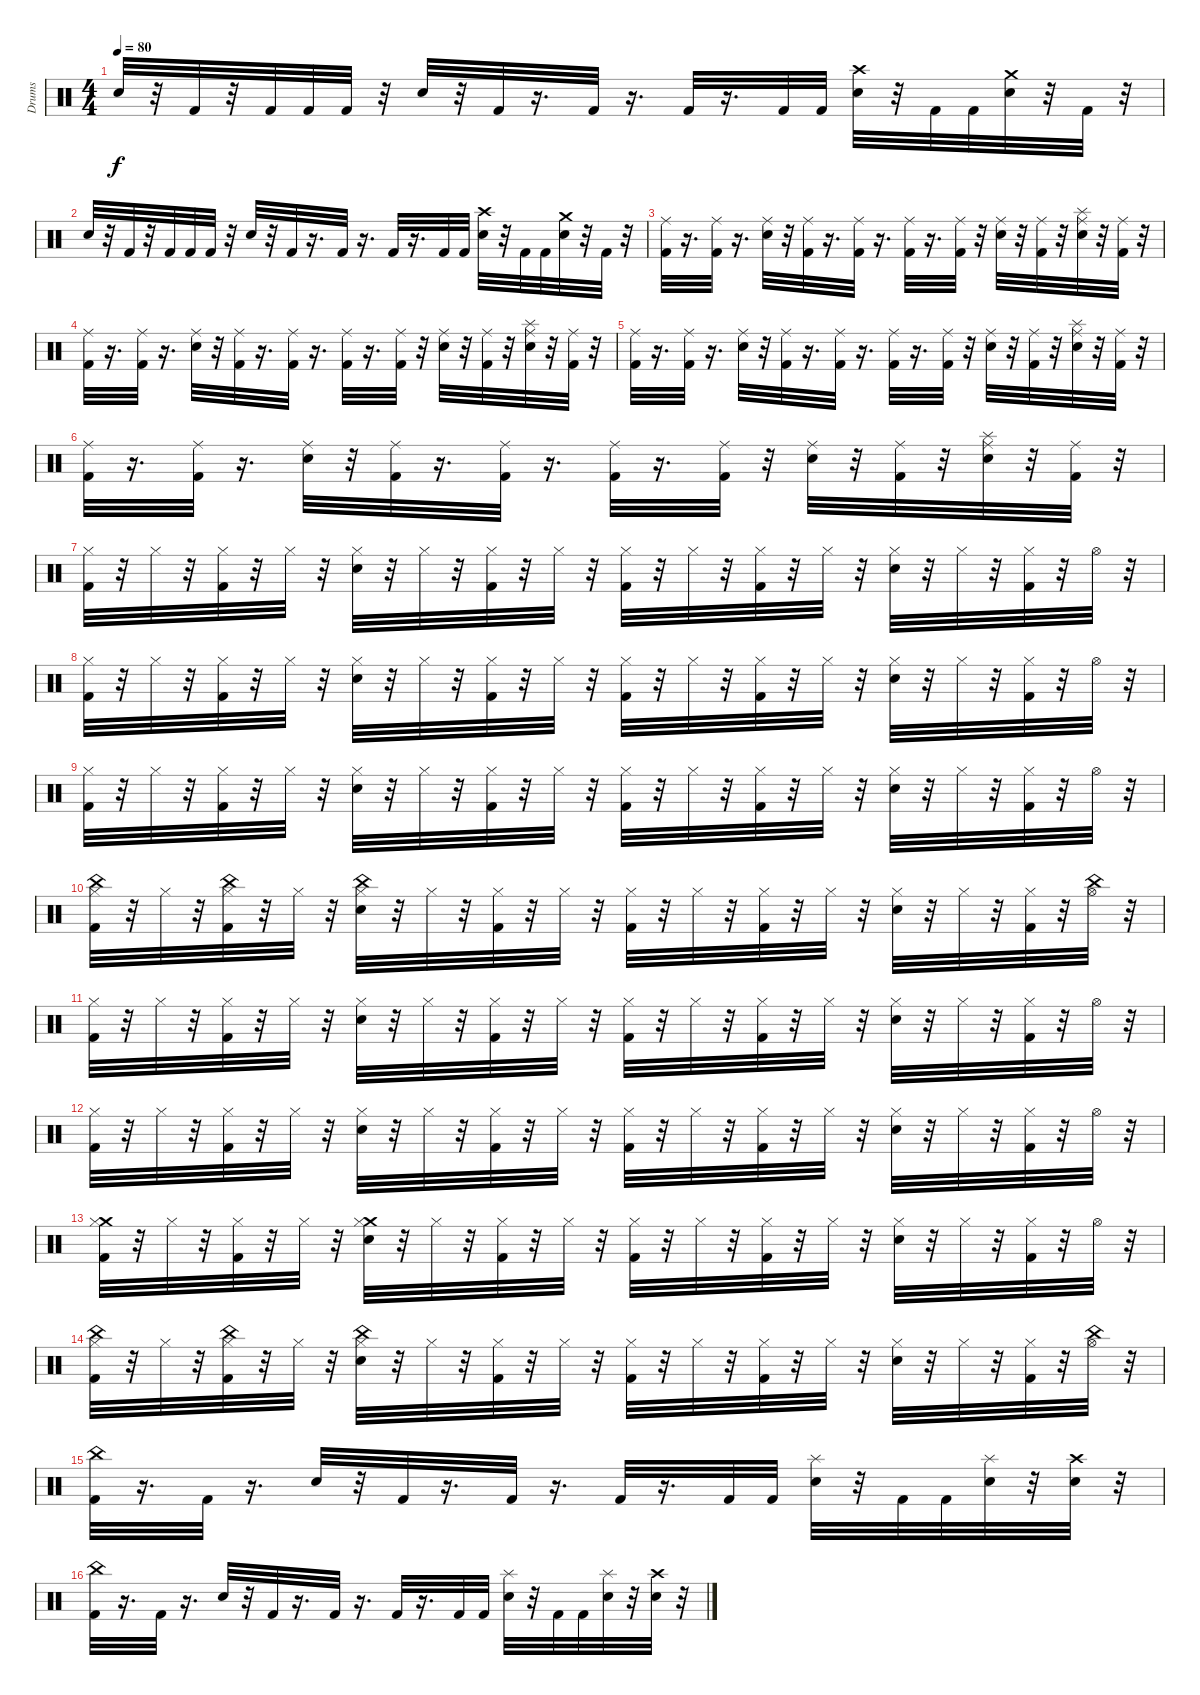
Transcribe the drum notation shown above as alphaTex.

\track ("Drums" "Drums") {instrument percussion}
\staff {score}
\articulation defaults
\ts (4 4)
\tempo 80
\clef neutral
\ks c "Electric Snare (hit)".32{dy f}
r.32 "Kick (hit) 2".32 r.32 "Kick (hit) 2".32 "Kick (hit) 2".32 "Kick (hit) 2".32 r.32 "Electric Snare (hit)".32 r.32 "Kick (hit) 2".32 r.16{d} "Kick (hit) 2".32 r.16{d} "Kick (hit) 2".32 r.16{d} "Kick (hit) 2".32 "Kick (hit) 2".32 ("Crash high (hit)" "Electric Snare (hit)").32 r.32 "Kick (hit) 2".32 "Kick (hit) 2".32 ("Electric Snare (hit)" "Crash medium (hit)").32 r.32 "Kick (hit) 2".32 r.32 |
"Electric Snare (hit)".32 r.32 "Kick (hit) 2".32 r.32 "Kick (hit) 2".32 "Kick (hit) 2".32 "Kick (hit) 2".32 r.32 "Electric Snare (hit)".32 r.32 "Kick (hit) 2".32 r.16{d} "Kick (hit) 2".32 r.16{d} "Kick (hit) 2".32 r.16{d} "Kick (hit) 2".32 "Kick (hit) 2".32 ("Crash high (hit)" "Electric Snare (hit)").32 r.32 "Kick (hit) 2".32 "Kick (hit) 2".32 ("Electric Snare (hit)" "Crash medium (hit)").32 r.32 "Kick (hit) 2".32 r.32 |
("Kick (hit) 2" "Ride (middle)").32 r.16{d} ("Ride (middle)" "Kick (hit) 2").32 r.16{d} ("Ride (middle)" "Electric Snare (hit)").32 r.32 ("Kick (hit) 2" "Ride (middle)").32 r.16{d} ("Kick (hit) 2" "Ride (middle)").32 r.16{d} ("Kick (hit) 2" "Ride (middle)").32 r.16{d} ("Kick (hit) 2" "Ride (middle)").32 r.32 ("Electric Snare (hit)" "Ride (middle)").32 r.32 ("Kick (hit) 2" "Ride (middle)").32 r.32 ("Splash (hit)" "Electric Snare (hit)" "Ride (middle)").32 r.32 ("Ride (middle)" "Kick (hit) 2").32 r.32 |
("Kick (hit) 2" "Ride (middle)").32 r.16{d} ("Ride (middle)" "Kick (hit) 2").32 r.16{d} ("Ride (middle)" "Electric Snare (hit)").32 r.32 ("Kick (hit) 2" "Ride (middle)").32 r.16{d} ("Kick (hit) 2" "Ride (middle)").32 r.16{d} ("Kick (hit) 2" "Ride (middle)").32 r.16{d} ("Kick (hit) 2" "Ride (middle)").32 r.32 ("Electric Snare (hit)" "Ride (middle)").32 r.32 ("Kick (hit) 2" "Ride (middle)").32 r.32 ("Splash (hit)" "Electric Snare (hit)" "Ride (middle)").32 r.32 ("Ride (middle)" "Kick (hit) 2").32 r.32 |
("Kick (hit) 2" "Ride (middle)").32 r.16{d} ("Ride (middle)" "Kick (hit) 2").32 r.16{d} ("Ride (middle)" "Electric Snare (hit)").32 r.32 ("Kick (hit) 2" "Ride (middle)").32 r.16{d} ("Kick (hit) 2" "Ride (middle)").32 r.16{d} ("Kick (hit) 2" "Ride (middle)").32 r.16{d} ("Kick (hit) 2" "Ride (middle)").32 r.32 ("Electric Snare (hit)" "Ride (middle)").32 r.32 ("Kick (hit) 2" "Ride (middle)").32 r.32 ("Splash (hit)" "Electric Snare (hit)" "Ride (middle)").32 r.32 ("Ride (middle)" "Kick (hit) 2").32 r.32 |
("Kick (hit) 2" "Ride (middle)").32 r.16{d} ("Ride (middle)" "Kick (hit) 2").32 r.16{d} ("Ride (middle)" "Electric Snare (hit)").32 r.32 ("Kick (hit) 2" "Ride (middle)").32 r.16{d} ("Kick (hit) 2" "Ride (middle)").32 r.16{d} ("Kick (hit) 2" "Ride (middle)").32 r.16{d} ("Kick (hit) 2" "Ride (middle)").32 r.32 ("Electric Snare (hit)" "Ride (middle)").32 r.32 ("Kick (hit) 2" "Ride (middle)").32 r.32 ("Splash (hit)" "Electric Snare (hit)" "Ride (middle)").32 r.32 ("Ride (middle)" "Kick (hit) 2").32 r.32 |
("Hi-Hat (closed)" "Kick (hit) 2").32 r.32 "Hi-Hat (closed)".32 r.32 ("Hi-Hat (closed)" "Kick (hit) 2").32 r.32 "Hi-Hat (closed)".32 r.32 ("Electric Snare (hit)" "Hi-Hat (closed)").32 r.32 "Hi-Hat (closed)".32 r.32 ("Kick (hit) 2" "Hi-Hat (closed)").32 r.32 "Hi-Hat (closed)".32 r.32 ("Kick (hit) 2" "Hi-Hat (closed)").32 r.32 "Hi-Hat (closed)".32 r.32 ("Kick (hit) 2" "Hi-Hat (closed)").32 r.32 "Hi-Hat (closed)".32 r.32 ("Electric Snare (hit)" "Hi-Hat (closed)").32 r.32 "Hi-Hat (closed)".32 r.32 ("Kick (hit) 2" "Hi-Hat (closed)").32 r.32 "Hi-Hat (open)".32 r.32 |
("Hi-Hat (closed)" "Kick (hit) 2").32 r.32 "Hi-Hat (closed)".32 r.32 ("Hi-Hat (closed)" "Kick (hit) 2").32 r.32 "Hi-Hat (closed)".32 r.32 ("Electric Snare (hit)" "Hi-Hat (closed)").32 r.32 "Hi-Hat (closed)".32 r.32 ("Kick (hit) 2" "Hi-Hat (closed)").32 r.32 "Hi-Hat (closed)".32 r.32 ("Kick (hit) 2" "Hi-Hat (closed)").32 r.32 "Hi-Hat (closed)".32 r.32 ("Kick (hit) 2" "Hi-Hat (closed)").32 r.32 "Hi-Hat (closed)".32 r.32 ("Electric Snare (hit)" "Hi-Hat (closed)").32 r.32 "Hi-Hat (closed)".32 r.32 ("Kick (hit) 2" "Hi-Hat (closed)").32 r.32 "Hi-Hat (open)".32 r.32 |
("Hi-Hat (closed)" "Kick (hit) 2").32 r.32 "Hi-Hat (closed)".32 r.32 ("Hi-Hat (closed)" "Kick (hit) 2").32 r.32 "Hi-Hat (closed)".32 r.32 ("Electric Snare (hit)" "Hi-Hat (closed)").32 r.32 "Hi-Hat (closed)".32 r.32 ("Kick (hit) 2" "Hi-Hat (closed)").32 r.32 "Hi-Hat (closed)".32 r.32 ("Kick (hit) 2" "Hi-Hat (closed)").32 r.32 "Hi-Hat (closed)".32 r.32 ("Kick (hit) 2" "Hi-Hat (closed)").32 r.32 "Hi-Hat (closed)".32 r.32 ("Electric Snare (hit)" "Hi-Hat (closed)").32 r.32 "Hi-Hat (closed)".32 r.32 ("Kick (hit) 2" "Hi-Hat (closed)").32 r.32 "Hi-Hat (open)".32 r.32 |
("China (hit)" "Hi-Hat (closed)" "Kick (hit) 2").32 r.32 "Hi-Hat (closed)".32 r.32 ("China (hit)" "Hi-Hat (closed)" "Kick (hit) 2").32 r.32 "Hi-Hat (closed)".32 r.32 ("Electric Snare (hit)" "Hi-Hat (closed)" "China (hit)").32 r.32 "Hi-Hat (closed)".32 r.32 ("Kick (hit) 2" "Hi-Hat (closed)").32 r.32 "Hi-Hat (closed)".32 r.32 ("Kick (hit) 2" "Hi-Hat (closed)").32 r.32 "Hi-Hat (closed)".32 r.32 ("Kick (hit) 2" "Hi-Hat (closed)").32 r.32 "Hi-Hat (closed)".32 r.32 ("Electric Snare (hit)" "Hi-Hat (closed)").32 r.32 "Hi-Hat (closed)".32 r.32 ("Kick (hit) 2" "Hi-Hat (closed)").32 r.32 ("China (hit)" "Hi-Hat (open)").32 r.32 |
("Hi-Hat (closed)" "Kick (hit) 2").32 r.32 "Hi-Hat (closed)".32 r.32 ("Hi-Hat (closed)" "Kick (hit) 2").32 r.32 "Hi-Hat (closed)".32 r.32 ("Electric Snare (hit)" "Hi-Hat (closed)").32 r.32 "Hi-Hat (closed)".32 r.32 ("Kick (hit) 2" "Hi-Hat (closed)").32 r.32 "Hi-Hat (closed)".32 r.32 ("Kick (hit) 2" "Hi-Hat (closed)").32 r.32 "Hi-Hat (closed)".32 r.32 ("Kick (hit) 2" "Hi-Hat (closed)").32 r.32 "Hi-Hat (closed)".32 r.32 ("Electric Snare (hit)" "Hi-Hat (closed)").32 r.32 "Hi-Hat (closed)".32 r.32 ("Kick (hit) 2" "Hi-Hat (closed)").32 r.32 "Hi-Hat (open)".32 r.32 |
("Hi-Hat (closed)" "Kick (hit) 2").32 r.32 "Hi-Hat (closed)".32 r.32 ("Hi-Hat (closed)" "Kick (hit) 2").32 r.32 "Hi-Hat (closed)".32 r.32 ("Electric Snare (hit)" "Hi-Hat (closed)").32 r.32 "Hi-Hat (closed)".32 r.32 ("Kick (hit) 2" "Hi-Hat (closed)").32 r.32 "Hi-Hat (closed)".32 r.32 ("Kick (hit) 2" "Hi-Hat (closed)").32 r.32 "Hi-Hat (closed)".32 r.32 ("Kick (hit) 2" "Hi-Hat (closed)").32 r.32 "Hi-Hat (closed)".32 r.32 ("Electric Snare (hit)" "Hi-Hat (closed)").32 r.32 "Hi-Hat (closed)".32 r.32 ("Kick (hit) 2" "Hi-Hat (closed)").32 r.32 "Hi-Hat (open)".32 r.32 |
("Crash medium (hit)" "Hi-Hat (closed)" "Kick (hit) 2").32 r.32 "Hi-Hat (closed)".32 r.32 ("Hi-Hat (closed)" "Kick (hit) 2").32 r.32 "Hi-Hat (closed)".32 r.32 ("Electric Snare (hit)" "Crash medium (hit)" "Hi-Hat (closed)").32 r.32 "Hi-Hat (closed)".32 r.32 ("Kick (hit) 2" "Hi-Hat (closed)").32 r.32 "Hi-Hat (closed)".32 r.32 ("Kick (hit) 2" "Hi-Hat (closed)").32 r.32 "Hi-Hat (closed)".32 r.32 ("Kick (hit) 2" "Hi-Hat (closed)").32 r.32 "Hi-Hat (closed)".32 r.32 ("Electric Snare (hit)" "Hi-Hat (closed)").32 r.32 "Hi-Hat (closed)".32 r.32 ("Kick (hit) 2" "Hi-Hat (closed)").32 r.32 "Hi-Hat (open)".32 r.32 |
("China (hit)" "Hi-Hat (closed)" "Kick (hit) 2").32 r.32 "Hi-Hat (closed)".32 r.32 ("China (hit)" "Hi-Hat (closed)" "Kick (hit) 2").32 r.32 "Hi-Hat (closed)".32 r.32 ("Electric Snare (hit)" "Hi-Hat (closed)" "China (hit)").32 r.32 "Hi-Hat (closed)".32 r.32 ("Kick (hit) 2" "Hi-Hat (closed)").32 r.32 "Hi-Hat (closed)".32 r.32 ("Kick (hit) 2" "Hi-Hat (closed)").32 r.32 "Hi-Hat (closed)".32 r.32 ("Kick (hit) 2" "Hi-Hat (closed)").32 r.32 "Hi-Hat (closed)".32 r.32 ("Electric Snare (hit)" "Hi-Hat (closed)").32 r.32 "Hi-Hat (closed)".32 r.32 ("Kick (hit) 2" "Hi-Hat (closed)").32 r.32 ("China (hit)" "Hi-Hat (open)").32 r.32 |
("Kick (hit) 2" "China (hit)").32 r.16{d} "Kick (hit) 2".32 r.16{d} "Electric Snare (hit)".32 r.32 "Kick (hit) 2".32 r.16{d} "Kick (hit) 2".32 r.16{d} "Kick (hit) 2".32 r.16{d} "Kick (hit) 2".32 "Kick (hit) 2".32 ("Splash (hit)" "Electric Snare (hit)").32 r.32 "Kick (hit) 2".32 "Kick (hit) 2".32 ("Splash (hit)" "Electric Snare (hit)").32 r.32 ("Electric Snare (hit)" "Crash high (hit)").32 r.32 |
("Kick (hit) 2" "China (hit)").32 r.16{d} "Kick (hit) 2".32 r.16{d} "Electric Snare (hit)".32 r.32 "Kick (hit) 2".32 r.16{d} "Kick (hit) 2".32 r.16{d} "Kick (hit) 2".32 r.16{d} "Kick (hit) 2".32 "Kick (hit) 2".32 ("Splash (hit)" "Electric Snare (hit)").32 r.32 "Kick (hit) 2".32 "Kick (hit) 2".32 ("Splash (hit)" "Electric Snare (hit)").32 r.32 ("Electric Snare (hit)" "Crash high (hit)").32 r.32
